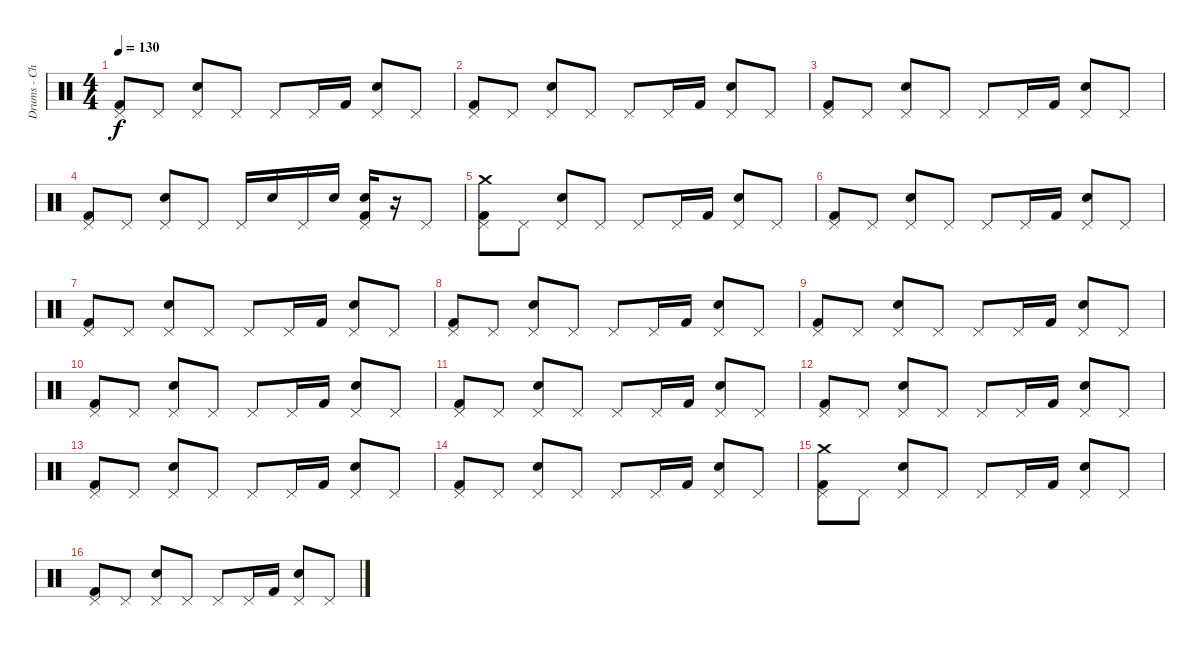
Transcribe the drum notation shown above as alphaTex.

\track ("Drums - Christoph Schneider" "Drums - Ch") {instrument percussion}
\staff {score}
\articulation defaults
\ts (4 4)
\tempo 130
\clef neutral
\ks c
("Pedal Hi-Hat (hit)" "Kick (hit) 2").8{dy f} "Pedal Hi-Hat (hit)".8 ("Pedal Hi-Hat (hit)" "Electric Snare (hit)").8 "Pedal Hi-Hat (hit)".8 "Pedal Hi-Hat (hit)".8 "Pedal Hi-Hat (hit)".16 "Kick (hit) 2".16 ("Pedal Hi-Hat (hit)" "Electric Snare (hit)").8 "Pedal Hi-Hat (hit)".8 |
("Pedal Hi-Hat (hit)" "Kick (hit) 2").8 "Pedal Hi-Hat (hit)".8 ("Pedal Hi-Hat (hit)" "Electric Snare (hit)").8 "Pedal Hi-Hat (hit)".8 "Pedal Hi-Hat (hit)".8 "Pedal Hi-Hat (hit)".16 "Kick (hit) 2".16 ("Pedal Hi-Hat (hit)" "Electric Snare (hit)").8 "Pedal Hi-Hat (hit)".8 |
("Pedal Hi-Hat (hit)" "Kick (hit) 2").8 "Pedal Hi-Hat (hit)".8 ("Pedal Hi-Hat (hit)" "Electric Snare (hit)").8 "Pedal Hi-Hat (hit)".8 "Pedal Hi-Hat (hit)".8 "Pedal Hi-Hat (hit)".16 "Kick (hit) 2".16 ("Pedal Hi-Hat (hit)" "Electric Snare (hit)").8 "Pedal Hi-Hat (hit)".8 |
("Pedal Hi-Hat (hit)" "Kick (hit) 2").8 "Pedal Hi-Hat (hit)".8 ("Pedal Hi-Hat (hit)" "Electric Snare (hit)").8 "Pedal Hi-Hat (hit)".8 "Pedal Hi-Hat (hit)".16 "Electric Snare (hit)".16 "Pedal Hi-Hat (hit)".16 "Electric Snare (hit)".16 ("Pedal Hi-Hat (hit)" "Electric Snare (hit)" "Kick (hit) 2").16 r.16 "Pedal Hi-Hat (hit)".8 |
("Crash medium (hit)" "Pedal Hi-Hat (hit)" "Kick (hit) 2").8 "Pedal Hi-Hat (hit)".8 ("Pedal Hi-Hat (hit)" "Electric Snare (hit)").8 "Pedal Hi-Hat (hit)".8 "Pedal Hi-Hat (hit)".8 "Pedal Hi-Hat (hit)".16 "Kick (hit) 2".16 ("Pedal Hi-Hat (hit)" "Electric Snare (hit)").8 "Pedal Hi-Hat (hit)".8 |
("Pedal Hi-Hat (hit)" "Kick (hit) 2").8 "Pedal Hi-Hat (hit)".8 ("Pedal Hi-Hat (hit)" "Electric Snare (hit)").8 "Pedal Hi-Hat (hit)".8 "Pedal Hi-Hat (hit)".8 "Pedal Hi-Hat (hit)".16 "Kick (hit) 2".16 ("Pedal Hi-Hat (hit)" "Electric Snare (hit)").8 "Pedal Hi-Hat (hit)".8 |
("Pedal Hi-Hat (hit)" "Kick (hit) 2").8 "Pedal Hi-Hat (hit)".8 ("Pedal Hi-Hat (hit)" "Electric Snare (hit)").8 "Pedal Hi-Hat (hit)".8 "Pedal Hi-Hat (hit)".8 "Pedal Hi-Hat (hit)".16 "Kick (hit) 2".16 ("Pedal Hi-Hat (hit)" "Electric Snare (hit)").8 "Pedal Hi-Hat (hit)".8 |
("Pedal Hi-Hat (hit)" "Kick (hit) 2").8 "Pedal Hi-Hat (hit)".8 ("Pedal Hi-Hat (hit)" "Electric Snare (hit)").8 "Pedal Hi-Hat (hit)".8 "Pedal Hi-Hat (hit)".8 "Pedal Hi-Hat (hit)".16 "Kick (hit) 2".16 ("Pedal Hi-Hat (hit)" "Electric Snare (hit)").8 "Pedal Hi-Hat (hit)".8 |
("Pedal Hi-Hat (hit)" "Kick (hit) 2").8 "Pedal Hi-Hat (hit)".8 ("Pedal Hi-Hat (hit)" "Electric Snare (hit)").8 "Pedal Hi-Hat (hit)".8 "Pedal Hi-Hat (hit)".8 "Pedal Hi-Hat (hit)".16 "Kick (hit) 2".16 ("Pedal Hi-Hat (hit)" "Electric Snare (hit)").8 "Pedal Hi-Hat (hit)".8 |
("Pedal Hi-Hat (hit)" "Kick (hit) 2").8 "Pedal Hi-Hat (hit)".8 ("Pedal Hi-Hat (hit)" "Electric Snare (hit)").8 "Pedal Hi-Hat (hit)".8 "Pedal Hi-Hat (hit)".8 "Pedal Hi-Hat (hit)".16 "Kick (hit) 2".16 ("Pedal Hi-Hat (hit)" "Electric Snare (hit)").8 "Pedal Hi-Hat (hit)".8 |
("Pedal Hi-Hat (hit)" "Kick (hit) 2").8 "Pedal Hi-Hat (hit)".8 ("Pedal Hi-Hat (hit)" "Electric Snare (hit)").8 "Pedal Hi-Hat (hit)".8 "Pedal Hi-Hat (hit)".8 "Pedal Hi-Hat (hit)".16 "Kick (hit) 2".16 ("Pedal Hi-Hat (hit)" "Electric Snare (hit)").8 "Pedal Hi-Hat (hit)".8 |
("Pedal Hi-Hat (hit)" "Kick (hit) 2").8 "Pedal Hi-Hat (hit)".8 ("Pedal Hi-Hat (hit)" "Electric Snare (hit)").8 "Pedal Hi-Hat (hit)".8 "Pedal Hi-Hat (hit)".8 "Pedal Hi-Hat (hit)".16 "Kick (hit) 2".16 ("Pedal Hi-Hat (hit)" "Electric Snare (hit)").8 "Pedal Hi-Hat (hit)".8 |
("Pedal Hi-Hat (hit)" "Kick (hit) 2").8 "Pedal Hi-Hat (hit)".8 ("Pedal Hi-Hat (hit)" "Electric Snare (hit)").8 "Pedal Hi-Hat (hit)".8 "Pedal Hi-Hat (hit)".8 "Pedal Hi-Hat (hit)".16 "Kick (hit) 2".16 ("Pedal Hi-Hat (hit)" "Electric Snare (hit)").8 "Pedal Hi-Hat (hit)".8 |
("Pedal Hi-Hat (hit)" "Kick (hit) 2").8 "Pedal Hi-Hat (hit)".8 ("Pedal Hi-Hat (hit)" "Electric Snare (hit)").8 "Pedal Hi-Hat (hit)".8 "Pedal Hi-Hat (hit)".8 "Pedal Hi-Hat (hit)".16 "Kick (hit) 2".16 ("Pedal Hi-Hat (hit)" "Electric Snare (hit)").8 "Pedal Hi-Hat (hit)".8 |
("Crash medium (hit)" "Pedal Hi-Hat (hit)" "Kick (hit) 2").8 "Pedal Hi-Hat (hit)".8 ("Pedal Hi-Hat (hit)" "Electric Snare (hit)").8 "Pedal Hi-Hat (hit)".8 "Pedal Hi-Hat (hit)".8 "Pedal Hi-Hat (hit)".16 "Kick (hit) 2".16 ("Pedal Hi-Hat (hit)" "Electric Snare (hit)").8 "Pedal Hi-Hat (hit)".8 |
("Pedal Hi-Hat (hit)" "Kick (hit) 2").8 "Pedal Hi-Hat (hit)".8 ("Pedal Hi-Hat (hit)" "Electric Snare (hit)").8 "Pedal Hi-Hat (hit)".8 "Pedal Hi-Hat (hit)".8 "Pedal Hi-Hat (hit)".16 "Kick (hit) 2".16 ("Pedal Hi-Hat (hit)" "Electric Snare (hit)").8 "Pedal Hi-Hat (hit)".8
